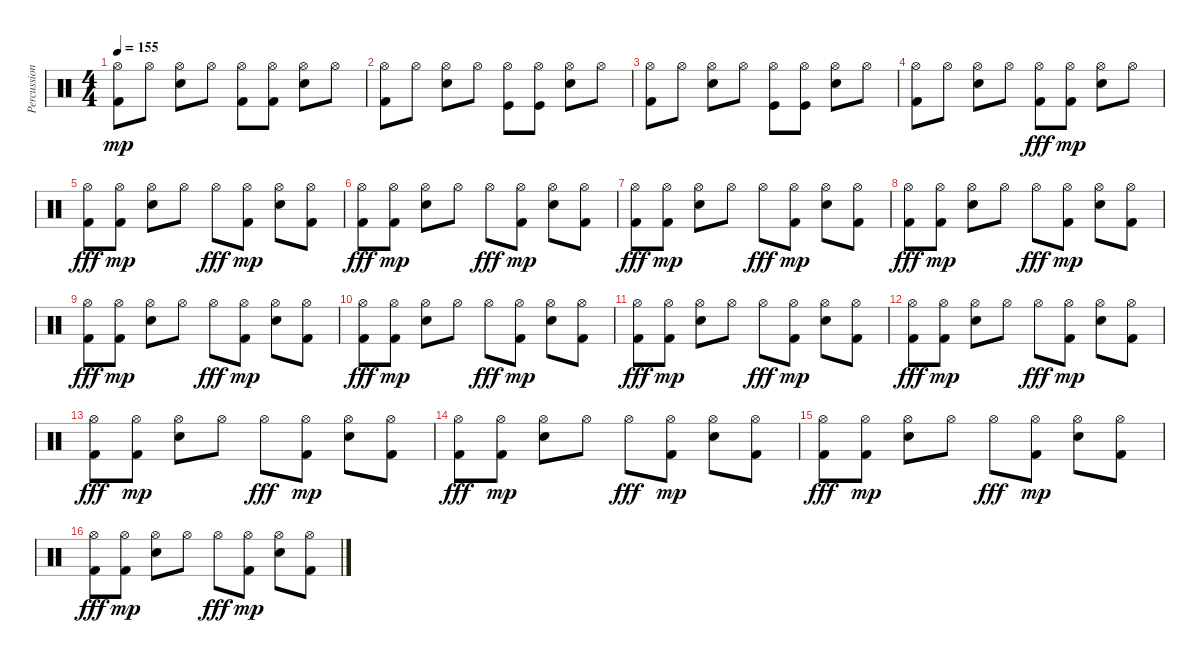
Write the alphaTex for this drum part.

\track ("Percussion" "Percussion") {instrument percussion}
\staff {score}
\articulation defaults
\ts (4 4)
\tempo 155
\clef neutral
\ks c
("Kick (hit) 2" "Hi-Hat (open)").8{dy mp} "Hi-Hat (open)".8 ("Snare (hit) 2" "Hi-Hat (open)").8 "Hi-Hat (open)".8 ("Kick (hit) 2" "Hi-Hat (open)").8 ("Kick (hit) 2" "Hi-Hat (open)").8 ("Snare (hit) 2" "Hi-Hat (open)").8 "Hi-Hat (open)".8 |
("Kick (hit) 2" "Hi-Hat (open)").8 "Hi-Hat (open)".8 ("Snare (hit) 2" "Hi-Hat (open)").8 "Hi-Hat (open)".8 ("Kick (hit)" "Hi-Hat (open)").8 ("Kick (hit)" "Hi-Hat (open)").8 ("Snare (hit) 2" "Hi-Hat (open)").8 "Hi-Hat (open)".8 |
("Kick (hit) 2" "Hi-Hat (open)").8 "Hi-Hat (open)".8 ("Snare (hit) 2" "Hi-Hat (open)").8 "Hi-Hat (open)".8 ("Kick (hit)" "Hi-Hat (open)").8 ("Kick (hit)" "Hi-Hat (open)").8 ("Snare (hit) 2" "Hi-Hat (open)").8 "Hi-Hat (open)".8 |
("Kick (hit) 2" "Hi-Hat (open)").8 "Hi-Hat (open)".8 ("Snare (hit) 2" "Hi-Hat (open)").8 "Hi-Hat (open)".8 ("Kick (hit) 2" "Hi-Hat (open)").8{dy fff} ("Kick (hit) 2" "Hi-Hat (open)").8{dy mp} ("Snare (hit) 2" "Hi-Hat (open)").8 "Hi-Hat (open)".8 |
("Kick (hit) 2" "Hi-Hat (open)").8{dy fff} ("Kick (hit) 2" "Hi-Hat (open)").8{dy mp} ("Snare (hit) 2" "Hi-Hat (open)").8 "Hi-Hat (open)".8 "Hi-Hat (open)".8{dy fff} ("Kick (hit) 2" "Hi-Hat (open)").8{dy mp} ("Snare (hit) 2" "Hi-Hat (open)").8 ("Kick (hit) 2" "Hi-Hat (open)").8 |
("Kick (hit) 2" "Hi-Hat (open)").8{dy fff} ("Kick (hit) 2" "Hi-Hat (open)").8{dy mp} ("Snare (hit) 2" "Hi-Hat (open)").8 "Hi-Hat (open)".8 "Hi-Hat (open)".8{dy fff} ("Kick (hit) 2" "Hi-Hat (open)").8{dy mp} ("Snare (hit) 2" "Hi-Hat (open)").8 ("Kick (hit) 2" "Hi-Hat (open)").8 |
("Kick (hit) 2" "Hi-Hat (open)").8{dy fff} ("Kick (hit) 2" "Hi-Hat (open)").8{dy mp} ("Snare (hit) 2" "Hi-Hat (open)").8 "Hi-Hat (open)".8 "Hi-Hat (open)".8{dy fff} ("Kick (hit) 2" "Hi-Hat (open)").8{dy mp} ("Snare (hit) 2" "Hi-Hat (open)").8 ("Kick (hit) 2" "Hi-Hat (open)").8 |
("Kick (hit) 2" "Hi-Hat (open)").8{dy fff} ("Kick (hit) 2" "Hi-Hat (open)").8{dy mp} ("Snare (hit) 2" "Hi-Hat (open)").8 "Hi-Hat (open)".8 "Hi-Hat (open)".8{dy fff} ("Kick (hit) 2" "Hi-Hat (open)").8{dy mp} ("Snare (hit) 2" "Hi-Hat (open)").8 ("Kick (hit) 2" "Hi-Hat (open)").8 |
("Kick (hit) 2" "Hi-Hat (open)").8{dy fff} ("Kick (hit) 2" "Hi-Hat (open)").8{dy mp} ("Snare (hit) 2" "Hi-Hat (open)").8 "Hi-Hat (open)".8 "Hi-Hat (open)".8{dy fff} ("Kick (hit) 2" "Hi-Hat (open)").8{dy mp} ("Snare (hit) 2" "Hi-Hat (open)").8 ("Kick (hit) 2" "Hi-Hat (open)").8 |
("Kick (hit) 2" "Hi-Hat (open)").8{dy fff} ("Kick (hit) 2" "Hi-Hat (open)").8{dy mp} ("Snare (hit) 2" "Hi-Hat (open)").8 "Hi-Hat (open)".8 "Hi-Hat (open)".8{dy fff} ("Kick (hit) 2" "Hi-Hat (open)").8{dy mp} ("Snare (hit) 2" "Hi-Hat (open)").8 ("Kick (hit) 2" "Hi-Hat (open)").8 |
("Kick (hit) 2" "Hi-Hat (open)").8{dy fff} ("Kick (hit) 2" "Hi-Hat (open)").8{dy mp} ("Snare (hit) 2" "Hi-Hat (open)").8 "Hi-Hat (open)".8 "Hi-Hat (open)".8{dy fff} ("Kick (hit) 2" "Hi-Hat (open)").8{dy mp} ("Snare (hit) 2" "Hi-Hat (open)").8 ("Kick (hit) 2" "Hi-Hat (open)").8 |
("Kick (hit) 2" "Hi-Hat (open)").8{dy fff} ("Kick (hit) 2" "Hi-Hat (open)").8{dy mp} ("Snare (hit) 2" "Hi-Hat (open)").8 "Hi-Hat (open)".8 "Hi-Hat (open)".8{dy fff} ("Kick (hit) 2" "Hi-Hat (open)").8{dy mp} ("Snare (hit) 2" "Hi-Hat (open)").8 ("Kick (hit) 2" "Hi-Hat (open)").8 |
("Kick (hit) 2" "Hi-Hat (open)").8{dy fff} ("Kick (hit) 2" "Hi-Hat (open)").8{dy mp} ("Snare (hit) 2" "Hi-Hat (open)").8 "Hi-Hat (open)".8 "Hi-Hat (open)".8{dy fff} ("Kick (hit) 2" "Hi-Hat (open)").8{dy mp} ("Snare (hit) 2" "Hi-Hat (open)").8 ("Kick (hit) 2" "Hi-Hat (open)").8 |
("Kick (hit) 2" "Hi-Hat (open)").8{dy fff} ("Kick (hit) 2" "Hi-Hat (open)").8{dy mp} ("Snare (hit) 2" "Hi-Hat (open)").8 "Hi-Hat (open)".8 "Hi-Hat (open)".8{dy fff} ("Kick (hit) 2" "Hi-Hat (open)").8{dy mp} ("Snare (hit) 2" "Hi-Hat (open)").8 ("Kick (hit) 2" "Hi-Hat (open)").8 |
("Kick (hit) 2" "Hi-Hat (open)").8{dy fff} ("Kick (hit) 2" "Hi-Hat (open)").8{dy mp} ("Snare (hit) 2" "Hi-Hat (open)").8 "Hi-Hat (open)".8 "Hi-Hat (open)".8{dy fff} ("Kick (hit) 2" "Hi-Hat (open)").8{dy mp} ("Snare (hit) 2" "Hi-Hat (open)").8 ("Kick (hit) 2" "Hi-Hat (open)").8 |
("Kick (hit) 2" "Hi-Hat (open)").8{dy fff} ("Kick (hit) 2" "Hi-Hat (open)").8{dy mp} ("Snare (hit) 2" "Hi-Hat (open)").8 "Hi-Hat (open)".8 "Hi-Hat (open)".8{dy fff} ("Kick (hit) 2" "Hi-Hat (open)").8{dy mp} ("Snare (hit) 2" "Hi-Hat (open)").8 ("Kick (hit) 2" "Hi-Hat (open)").8
